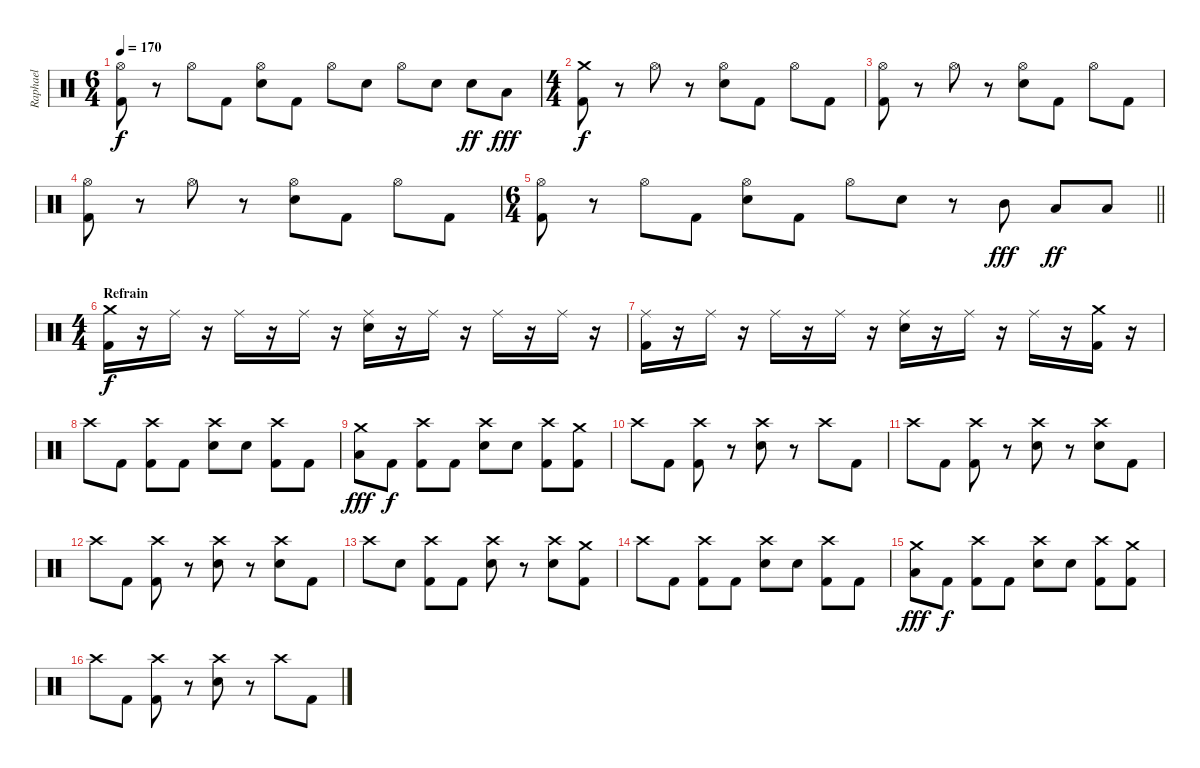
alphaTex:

\track ("Raphael" "Raphael") {instrument percussion}
\staff {score}
\articulation defaults
\ts (6 4)
\tempo 170
\clef neutral
\ks c
("Kick (hit) 2" "Hi-Hat (open)").8{dy f} r.8 "Hi-Hat (open)".8 "Kick (hit) 2".8 ("Snare (hit) 2" "Hi-Hat (open)").8 "Kick (hit) 2".8 "Hi-Hat (open)".8 "Snare (hit) 2".8 "Hi-Hat (open)".8 "Snare (hit) 2".8 "Snare (hit) 2".8{dy ff} "Low Floor Tom (hit)".8{dy fff} |
\ts (4 4)
("Kick (hit) 2" "Crash medium (hit)").8{dy f} r.8 "Hi-Hat (open)".8 r.8 ("Snare (hit) 2" "Hi-Hat (open)").8 "Kick (hit) 2".8 "Hi-Hat (open)".8 "Kick (hit) 2".8 |
("Kick (hit) 2" "Hi-Hat (open)").8 r.8 "Hi-Hat (open)".8 r.8 ("Snare (hit) 2" "Hi-Hat (open)").8 "Kick (hit) 2".8 "Hi-Hat (open)".8 "Kick (hit) 2".8 |
("Kick (hit) 2" "Hi-Hat (open)").8 r.8 "Hi-Hat (open)".8 r.8 ("Snare (hit) 2" "Hi-Hat (open)").8 "Kick (hit) 2".8 "Hi-Hat (open)".8 "Kick (hit) 2".8 |
\ts (6 4)
\barLineRight lightlight
("Kick (hit) 2" "Hi-Hat (open)").8 r.8 "Hi-Hat (open)".8 "Kick (hit) 2".8 ("Snare (hit) 2" "Hi-Hat (open)").8 "Kick (hit) 2".8 "Hi-Hat (open)".8 "Snare (hit) 2".8 r.8 "Mid Tom (hit)".8{dy fff} "Low Tom (hit)".8{dy ff} "Low Tom (hit)".8 |
\ts (4 4)
\section ("" "Refrain")
("Kick (hit) 2" "Crash medium (hit)").16{dy f} r.16 "Ride (middle)".16 r.16 "Ride (middle)".16 r.16 "Ride (middle)".16 r.16 ("Snare (hit) 2" "Ride (middle)").16 r.16 "Ride (middle)".16 r.16 "Ride (middle)".16 r.16 "Ride (middle)".16 r.16 |
("Kick (hit) 2" "Ride (middle)").16 r.16 "Ride (middle)".16 r.16 "Ride (middle)".16 r.16 "Ride (middle)".16 r.16 ("Snare (hit) 2" "Ride (middle)").16 r.16 "Ride (middle)".16 r.16 "Ride (middle)".16 r.16 ("Kick (hit) 2" "Crash medium (hit)").16 r.16 |
"Crash high (hit)".8 "Kick (hit) 2".8 ("Kick (hit) 2" "Crash high (hit)").8 "Kick (hit) 2".8 ("Snare (hit) 2" "Crash high (hit)").8 "Snare (hit) 2".8 ("Kick (hit) 2" "Crash high (hit)").8 "Kick (hit) 2".8 |
("Low Tom (hit)" "Crash medium (hit)").8{dy fff} "Kick (hit) 2".8{dy f} ("Kick (hit) 2" "Crash high (hit)").8 "Kick (hit) 2".8 ("Snare (hit) 2" "Crash high (hit)").8 "Snare (hit) 2".8 ("Kick (hit) 2" "Crash high (hit)").8 ("Kick (hit) 2" "Crash medium (hit)").8 |
"Crash high (hit)".8 "Kick (hit) 2".8 ("Kick (hit) 2" "Crash high (hit)").8 r.8 ("Snare (hit) 2" "Crash high (hit)").8 r.8 "Crash high (hit)".8 "Kick (hit) 2".8 |
"Crash high (hit)".8 "Kick (hit) 2".8 ("Kick (hit) 2" "Crash high (hit)").8 r.8 ("Snare (hit) 2" "Crash high (hit)").8 r.8 ("Snare (hit) 2" "Crash high (hit)").8 "Kick (hit) 2".8 |
"Crash high (hit)".8 "Kick (hit) 2".8 ("Kick (hit) 2" "Crash high (hit)").8 r.8 ("Snare (hit) 2" "Crash high (hit)").8 r.8 ("Snare (hit) 2" "Crash high (hit)").8 "Kick (hit) 2".8 |
"Crash high (hit)".8 "Snare (hit) 2".8 ("Kick (hit) 2" "Crash high (hit)").8 "Kick (hit) 2".8 ("Snare (hit) 2" "Crash high (hit)").8 r.8 ("Snare (hit) 2" "Crash high (hit)").8 ("Kick (hit) 2" "Crash medium (hit)").8 |
"Crash high (hit)".8 "Kick (hit) 2".8 ("Kick (hit) 2" "Crash high (hit)").8 "Kick (hit) 2".8 ("Snare (hit) 2" "Crash high (hit)").8 "Snare (hit) 2".8 ("Kick (hit) 2" "Crash high (hit)").8 "Kick (hit) 2".8 |
("Low Tom (hit)" "Crash medium (hit)").8{dy fff} "Kick (hit) 2".8{dy f} ("Kick (hit) 2" "Crash high (hit)").8 "Kick (hit) 2".8 ("Snare (hit) 2" "Crash high (hit)").8 "Snare (hit) 2".8 ("Kick (hit) 2" "Crash high (hit)").8 ("Kick (hit) 2" "Crash medium (hit)").8 |
"Crash high (hit)".8 "Kick (hit) 2".8 ("Kick (hit) 2" "Crash high (hit)").8 r.8 ("Snare (hit) 2" "Crash high (hit)").8 r.8 "Crash high (hit)".8 "Kick (hit) 2".8
